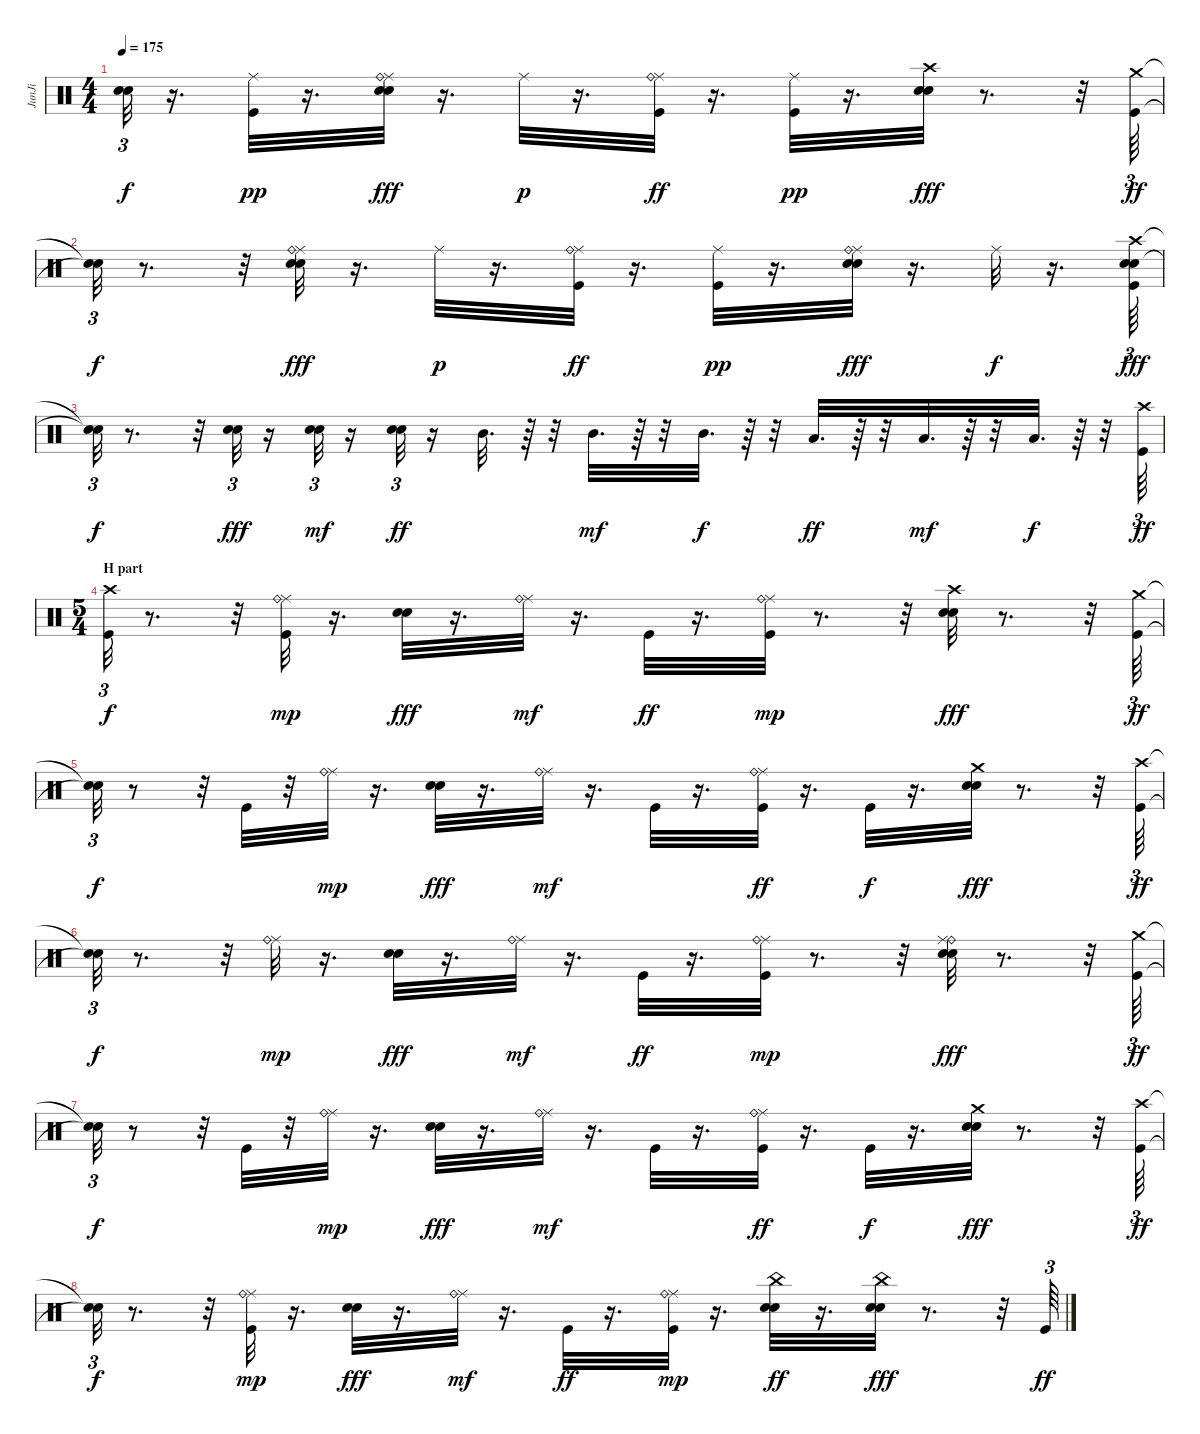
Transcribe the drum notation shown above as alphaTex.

\track ("JunJi" "JunJi") {instrument percussion}
\staff {score}
\articulation defaults
\ts (4 4)
\tempo 175
\clef neutral
\ks c
("Snare (hit)"{t} "Snare (hit)"{t}).32{tu (3 2) dy f} r.16{d} ("Ride (middle)" "Kick (hit)").32{dy pp} r.16{d} ("Ride (middle)" "Ride (bell)" "Electric Snare (hit)" "Snare (hit) 2").32{dy fff} r.16{d} "Ride (middle)".32{dy p} r.16{d} ("Ride (middle)" "Ride (bell)" "Kick (hit)").32{dy ff} r.16{d} ("Ride (middle)" "Kick (hit)").32{dy pp} r.16{d} ("Crash high (hit)" "Electric Snare (hit)" "Snare (hit) 2").32{dy fff} r.8{d} r.32 ("Crash medium (hit)" "Kick (hit)").64{tu (3 2) dy ff} |
("Snare (hit)"{t} "Snare (hit)"{t}).32{tu (3 2) dy f} r.8{d} r.32 ("Ride (middle)" "Ride (bell)" "Electric Snare (hit)" "Snare (hit) 2").32{dy fff} r.16{d} "Ride (middle)".32{dy p} r.16{d} ("Ride (middle)" "Ride (bell)" "Kick (hit)").32{dy ff} r.16{d} ("Ride (middle)" "Kick (hit)").32{dy pp} r.16{d} ("Ride (middle)" "Ride (bell)" "Electric Snare (hit)" "Snare (hit) 2").32{dy fff} r.16{d} "Ride (middle)".32{dy f} r.16{d} ("Crash high (hit)" "Electric Snare (hit)" "Kick (hit)" "Snare (hit) 2").64{tu (3 2) dy fff} |
("Snare (hit)"{t} "Snare (hit)"{t}).32{tu (3 2) dy f} r.8{d} r.32 ("Electric Snare (hit)" "Snare (hit) 2").32{tu (3 2) dy fff} r.16 ("Electric Snare (hit)" "Snare (hit) 2").32{tu (3 2) dy mf} r.16 ("Electric Snare (hit)" "Snare (hit) 2").32{tu (3 2) dy ff} r.16 "Mid Tom (hit)".32{d} r.64 r.32 "Mid Tom (hit)".32{d dy mf} r.64 r.32 "Mid Tom (hit)".32{d dy f} r.64 r.32 "Low Tom (hit)".32{d dy ff} r.64 r.32 "Low Tom (hit)".32{d dy mf} r.64 r.32 "Low Tom (hit)".32{d dy f} r.64 r.32 ("Crash high (hit)" "Kick (hit)").64{tu (3 2) dy ff} |
\ts (5 4)
\section ("" "H part")
("Crash high (hit)" "Kick (hit)").32{tu (3 2) dy f} r.8{d} r.32 ("Ride (middle)" "Ride (bell)" "Kick (hit)").32{dy mp} r.16{d} ("Electric Snare (hit)" "Snare (hit) 2").32{dy fff} r.16{d} ("Ride (middle)" "Ride (bell)").32{dy mf} r.16{d} "Kick (hit)".32{dy ff} r.16{d} ("Ride (middle)" "Ride (bell)" "Kick (hit)").32{dy mp} r.8{d} r.32 ("Crash high (hit)" "Electric Snare (hit)" "Snare (hit) 2").32{dy fff} r.8{d} r.32 ("Crash medium (hit)" "Kick (hit)").64{tu (3 2) dy ff} |
("Snare (hit)"{t} "Snare (hit)"{t}).32{tu (3 2) dy f} r.8 r.32 "Kick (hit)".32 r.32 ("Ride (middle)" "Ride (bell)").32{dy mp} r.16{d} ("Electric Snare (hit)" "Snare (hit) 2").32{dy fff} r.16{d} ("Ride (middle)" "Ride (bell)").32{dy mf} r.16{d} "Kick (hit)".32 r.16{d} ("Ride (middle)" "Ride (bell)" "Kick (hit)").32{dy ff} r.16{d} "Kick (hit)".32{dy f} r.16{d} ("Crash medium (hit)" "Electric Snare (hit)" "Snare (hit) 2").32{dy fff} r.8{d} r.32 ("Crash high (hit)" "Kick (hit)").64{tu (3 2) dy ff} |
("Snare (hit)"{t} "Snare (hit)"{t}).32{tu (3 2) dy f} r.8{d} r.32 ("Ride (middle)" "Ride (bell)").32{dy mp} r.16{d} ("Electric Snare (hit)" "Snare (hit) 2").32{dy fff} r.16{d} ("Ride (middle)" "Ride (bell)").32{dy mf} r.16{d} "Kick (hit)".32{dy ff} r.16{d} ("Ride (middle)" "Ride (bell)" "Kick (hit)").32{dy mp} r.8{d} r.32 ("Ride (bell)" "Ride (middle)" "Electric Snare (hit)" "Snare (hit) 2").32{dy fff} r.8{d} r.32 ("Crash medium (hit)" "Kick (hit)").64{tu (3 2) dy ff} |
("Snare (hit)"{t} "Snare (hit)"{t}).32{tu (3 2) dy f} r.8 r.32 "Kick (hit)".32 r.32 ("Ride (middle)" "Ride (bell)").32{dy mp} r.16{d} ("Electric Snare (hit)" "Snare (hit) 2").32{dy fff} r.16{d} ("Ride (middle)" "Ride (bell)").32{dy mf} r.16{d} "Kick (hit)".32 r.16{d} ("Ride (middle)" "Ride (bell)" "Kick (hit)").32{dy ff} r.16{d} "Kick (hit)".32{dy f} r.16{d} ("Crash medium (hit)" "Electric Snare (hit)" "Snare (hit) 2").32{dy fff} r.8{d} r.32 ("Crash high (hit)" "Kick (hit)").64{tu (3 2) dy ff} |
("Snare (hit)"{t} "Snare (hit)"{t}).32{tu (3 2) dy f} r.8{d} r.32 ("Ride (middle)" "Ride (bell)" "Kick (hit)").32{dy mp} r.16{d} ("Electric Snare (hit)" "Snare (hit) 2").32{dy fff} r.16{d} ("Ride (middle)" "Ride (bell)").32{dy mf} r.16{d} "Kick (hit)".32{dy ff} r.16{d} ("Ride (middle)" "Ride (bell)" "Kick (hit)").32{dy mp} r.16{d} ("China (hit)" "Electric Snare (hit)" "Snare (hit) 2").32{dy ff} r.16{d} ("China (hit)" "Electric Snare (hit)" "Snare (hit) 2").32{dy fff} r.8{d} r.32 "Kick (hit)".64{tu (3 2) dy ff}
